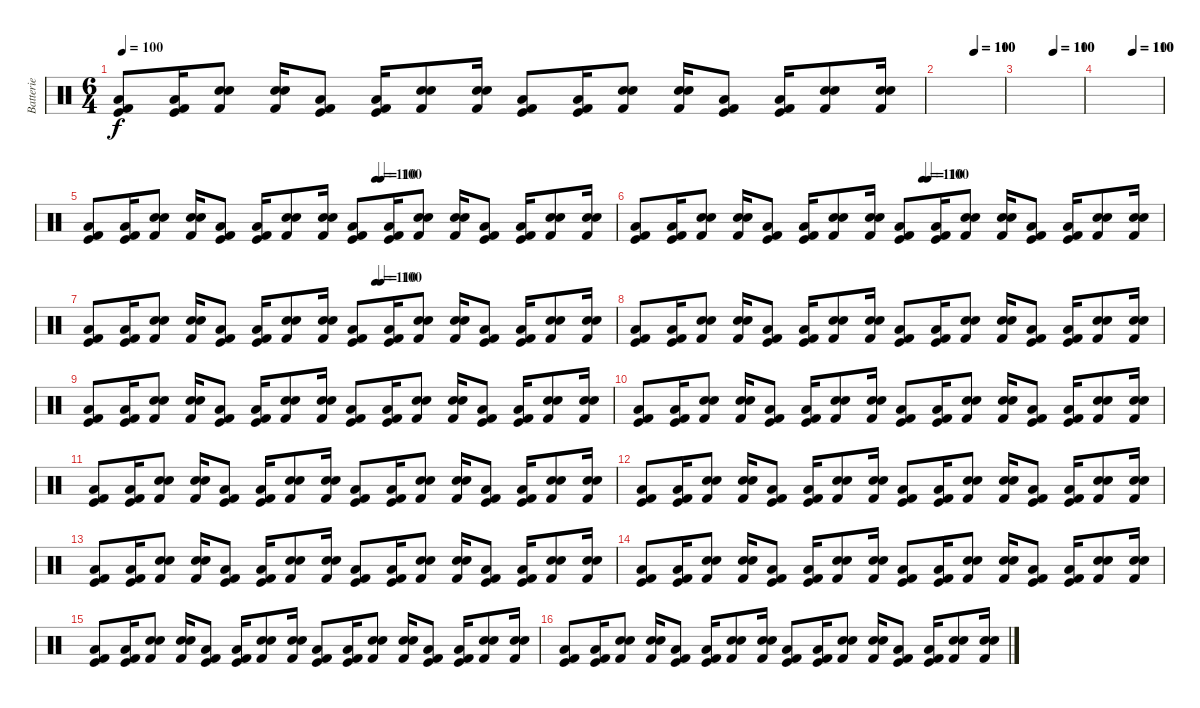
\track ("Batterie" "Batterie") {instrument percussion}
\staff {score}
\articulation defaults
\ts (6 4)
\tempo 100
\clef neutral
\ks c
("Kick (hit)" "Low Tom (hit)" "Kick (hit) 2").8{dy f} ("Kick (hit)" "Low Tom (hit)" "Kick (hit) 2").16 ("Snare (hit) 2" "Kick (hit) 2" "Snare (hit) 2").8 ("Snare (hit) 2" "Kick (hit) 2" "Snare (hit) 2").16 ("Kick (hit)" "Low Tom (hit)" "Kick (hit) 2").8 ("Kick (hit)" "Low Tom (hit)" "Kick (hit) 2").16 ("Snare (hit) 2" "Kick (hit) 2" "Snare (hit) 2").8 ("Snare (hit) 2" "Kick (hit) 2" "Snare (hit) 2").16 ("Kick (hit)" "Low Tom (hit)" "Kick (hit) 2").8 ("Kick (hit)" "Low Tom (hit)" "Kick (hit) 2").16 ("Snare (hit) 2" "Kick (hit) 2" "Snare (hit) 2").8 ("Snare (hit) 2" "Kick (hit) 2" "Snare (hit) 2").16 ("Kick (hit)" "Low Tom (hit)" "Kick (hit) 2").8 ("Kick (hit)" "Low Tom (hit)" "Kick (hit) 2").16 ("Snare (hit) 2" "Kick (hit) 2" "Snare (hit) 2").8 ("Snare (hit) 2" "Kick (hit) 2" "Snare (hit) 2").16 |
\tempo (110 0.5416666666666666)
\tempo (100 0.5520833333333334)
|
\tempo (110 0.5416666666666666)
\tempo (100 0.5520833333333334)
|
\tempo (110 0.5416666666666666)
\tempo (100 0.5520833333333334)
|
\tempo (110 0.5416666666666666)
\tempo (100 0.5520833333333334)
("Kick (hit)" "Low Tom (hit)" "Kick (hit) 2").8 ("Kick (hit)" "Low Tom (hit)" "Kick (hit) 2").16 ("Snare (hit) 2" "Kick (hit) 2" "Snare (hit) 2").8 ("Snare (hit) 2" "Kick (hit) 2" "Snare (hit) 2").16 ("Kick (hit)" "Low Tom (hit)" "Kick (hit) 2").8 ("Kick (hit)" "Low Tom (hit)" "Kick (hit) 2").16 ("Snare (hit) 2" "Kick (hit) 2" "Snare (hit) 2").8 ("Snare (hit) 2" "Kick (hit) 2" "Snare (hit) 2").16 ("Kick (hit)" "Low Tom (hit)" "Kick (hit) 2").8 ("Kick (hit)" "Low Tom (hit)" "Kick (hit) 2").16 ("Snare (hit) 2" "Kick (hit) 2" "Snare (hit) 2").8 ("Snare (hit) 2" "Kick (hit) 2" "Snare (hit) 2").16 ("Kick (hit)" "Low Tom (hit)" "Kick (hit) 2").8 ("Kick (hit)" "Low Tom (hit)" "Kick (hit) 2").16 ("Snare (hit) 2" "Kick (hit) 2" "Snare (hit) 2").8 ("Snare (hit) 2" "Kick (hit) 2" "Snare (hit) 2").16 |
\tempo (110 0.5416666666666666)
\tempo (100 0.5520833333333334)
("Kick (hit)" "Low Tom (hit)" "Kick (hit) 2").8 ("Kick (hit)" "Low Tom (hit)" "Kick (hit) 2").16 ("Snare (hit) 2" "Kick (hit) 2" "Snare (hit) 2").8 ("Snare (hit) 2" "Kick (hit) 2" "Snare (hit) 2").16 ("Kick (hit)" "Low Tom (hit)" "Kick (hit) 2").8 ("Kick (hit)" "Low Tom (hit)" "Kick (hit) 2").16 ("Snare (hit) 2" "Kick (hit) 2" "Snare (hit) 2").8 ("Snare (hit) 2" "Kick (hit) 2" "Snare (hit) 2").16 ("Kick (hit)" "Low Tom (hit)" "Kick (hit) 2").8 ("Kick (hit)" "Low Tom (hit)" "Kick (hit) 2").16 ("Snare (hit) 2" "Kick (hit) 2" "Snare (hit) 2").8 ("Snare (hit) 2" "Kick (hit) 2" "Snare (hit) 2").16 ("Kick (hit)" "Low Tom (hit)" "Kick (hit) 2").8 ("Kick (hit)" "Low Tom (hit)" "Kick (hit) 2").16 ("Snare (hit) 2" "Kick (hit) 2" "Snare (hit) 2").8 ("Snare (hit) 2" "Kick (hit) 2" "Snare (hit) 2").16 |
\tempo (110 0.5416666666666666)
\tempo (100 0.5520833333333334)
("Kick (hit)" "Low Tom (hit)" "Kick (hit) 2").8 ("Kick (hit)" "Low Tom (hit)" "Kick (hit) 2").16 ("Snare (hit) 2" "Kick (hit) 2" "Snare (hit) 2").8 ("Snare (hit) 2" "Kick (hit) 2" "Snare (hit) 2").16 ("Kick (hit)" "Low Tom (hit)" "Kick (hit) 2").8 ("Kick (hit)" "Low Tom (hit)" "Kick (hit) 2").16 ("Snare (hit) 2" "Kick (hit) 2" "Snare (hit) 2").8 ("Snare (hit) 2" "Kick (hit) 2" "Snare (hit) 2").16 ("Kick (hit)" "Low Tom (hit)" "Kick (hit) 2").8 ("Kick (hit)" "Low Tom (hit)" "Kick (hit) 2").16 ("Snare (hit) 2" "Kick (hit) 2" "Snare (hit) 2").8 ("Snare (hit) 2" "Kick (hit) 2" "Snare (hit) 2").16 ("Kick (hit)" "Low Tom (hit)" "Kick (hit) 2").8 ("Kick (hit)" "Low Tom (hit)" "Kick (hit) 2").16 ("Snare (hit) 2" "Kick (hit) 2" "Snare (hit) 2").8 ("Snare (hit) 2" "Kick (hit) 2" "Snare (hit) 2").16 |
("Kick (hit)" "Low Tom (hit)" "Kick (hit) 2").8 ("Kick (hit)" "Low Tom (hit)" "Kick (hit) 2").16 ("Snare (hit) 2" "Kick (hit) 2" "Snare (hit) 2").8 ("Snare (hit) 2" "Kick (hit) 2" "Snare (hit) 2").16 ("Kick (hit)" "Low Tom (hit)" "Kick (hit) 2").8 ("Kick (hit)" "Low Tom (hit)" "Kick (hit) 2").16 ("Snare (hit) 2" "Kick (hit) 2" "Snare (hit) 2").8 ("Snare (hit) 2" "Kick (hit) 2" "Snare (hit) 2").16 ("Kick (hit)" "Low Tom (hit)" "Kick (hit) 2").8 ("Kick (hit)" "Low Tom (hit)" "Kick (hit) 2").16 ("Snare (hit) 2" "Kick (hit) 2" "Snare (hit) 2").8 ("Snare (hit) 2" "Kick (hit) 2" "Snare (hit) 2").16 ("Kick (hit)" "Low Tom (hit)" "Kick (hit) 2").8 ("Kick (hit)" "Low Tom (hit)" "Kick (hit) 2").16 ("Snare (hit) 2" "Kick (hit) 2" "Snare (hit) 2").8 ("Snare (hit) 2" "Kick (hit) 2" "Snare (hit) 2").16 |
("Kick (hit)" "Low Tom (hit)" "Kick (hit) 2").8 ("Kick (hit)" "Low Tom (hit)" "Kick (hit) 2").16 ("Snare (hit) 2" "Kick (hit) 2" "Snare (hit) 2").8 ("Snare (hit) 2" "Kick (hit) 2" "Snare (hit) 2").16 ("Kick (hit)" "Low Tom (hit)" "Kick (hit) 2").8 ("Kick (hit)" "Low Tom (hit)" "Kick (hit) 2").16 ("Snare (hit) 2" "Kick (hit) 2" "Snare (hit) 2").8 ("Snare (hit) 2" "Kick (hit) 2" "Snare (hit) 2").16 ("Kick (hit)" "Low Tom (hit)" "Kick (hit) 2").8 ("Kick (hit)" "Low Tom (hit)" "Kick (hit) 2").16 ("Snare (hit) 2" "Kick (hit) 2" "Snare (hit) 2").8 ("Snare (hit) 2" "Kick (hit) 2" "Snare (hit) 2").16 ("Kick (hit)" "Low Tom (hit)" "Kick (hit) 2").8 ("Kick (hit)" "Low Tom (hit)" "Kick (hit) 2").16 ("Snare (hit) 2" "Kick (hit) 2" "Snare (hit) 2").8 ("Snare (hit) 2" "Kick (hit) 2" "Snare (hit) 2").16 |
("Kick (hit)" "Low Tom (hit)" "Kick (hit) 2").8 ("Kick (hit)" "Low Tom (hit)" "Kick (hit) 2").16 ("Snare (hit) 2" "Kick (hit) 2" "Snare (hit) 2").8 ("Snare (hit) 2" "Kick (hit) 2" "Snare (hit) 2").16 ("Kick (hit)" "Low Tom (hit)" "Kick (hit) 2").8 ("Kick (hit)" "Low Tom (hit)" "Kick (hit) 2").16 ("Snare (hit) 2" "Kick (hit) 2" "Snare (hit) 2").8 ("Snare (hit) 2" "Kick (hit) 2" "Snare (hit) 2").16 ("Kick (hit)" "Low Tom (hit)" "Kick (hit) 2").8 ("Kick (hit)" "Low Tom (hit)" "Kick (hit) 2").16 ("Snare (hit) 2" "Kick (hit) 2" "Snare (hit) 2").8 ("Snare (hit) 2" "Kick (hit) 2" "Snare (hit) 2").16 ("Kick (hit)" "Low Tom (hit)" "Kick (hit) 2").8 ("Kick (hit)" "Low Tom (hit)" "Kick (hit) 2").16 ("Snare (hit) 2" "Kick (hit) 2" "Snare (hit) 2").8 ("Snare (hit) 2" "Kick (hit) 2" "Snare (hit) 2").16 |
("Kick (hit)" "Low Tom (hit)" "Kick (hit) 2").8 ("Kick (hit)" "Low Tom (hit)" "Kick (hit) 2").16 ("Snare (hit) 2" "Kick (hit) 2" "Snare (hit) 2").8 ("Snare (hit) 2" "Kick (hit) 2" "Snare (hit) 2").16 ("Kick (hit)" "Low Tom (hit)" "Kick (hit) 2").8 ("Kick (hit)" "Low Tom (hit)" "Kick (hit) 2").16 ("Snare (hit) 2" "Kick (hit) 2" "Snare (hit) 2").8 ("Snare (hit) 2" "Kick (hit) 2" "Snare (hit) 2").16 ("Kick (hit)" "Low Tom (hit)" "Kick (hit) 2").8 ("Kick (hit)" "Low Tom (hit)" "Kick (hit) 2").16 ("Snare (hit) 2" "Kick (hit) 2" "Snare (hit) 2").8 ("Snare (hit) 2" "Kick (hit) 2" "Snare (hit) 2").16 ("Kick (hit)" "Low Tom (hit)" "Kick (hit) 2").8 ("Kick (hit)" "Low Tom (hit)" "Kick (hit) 2").16 ("Snare (hit) 2" "Kick (hit) 2" "Snare (hit) 2").8 ("Snare (hit) 2" "Kick (hit) 2" "Snare (hit) 2").16 |
("Kick (hit)" "Low Tom (hit)" "Kick (hit) 2").8 ("Kick (hit)" "Low Tom (hit)" "Kick (hit) 2").16 ("Snare (hit) 2" "Kick (hit) 2" "Snare (hit) 2").8 ("Snare (hit) 2" "Kick (hit) 2" "Snare (hit) 2").16 ("Kick (hit)" "Low Tom (hit)" "Kick (hit) 2").8 ("Kick (hit)" "Low Tom (hit)" "Kick (hit) 2").16 ("Snare (hit) 2" "Kick (hit) 2" "Snare (hit) 2").8 ("Snare (hit) 2" "Kick (hit) 2" "Snare (hit) 2").16 ("Kick (hit)" "Low Tom (hit)" "Kick (hit) 2").8 ("Kick (hit)" "Low Tom (hit)" "Kick (hit) 2").16 ("Snare (hit) 2" "Kick (hit) 2" "Snare (hit) 2").8 ("Snare (hit) 2" "Kick (hit) 2" "Snare (hit) 2").16 ("Kick (hit)" "Low Tom (hit)" "Kick (hit) 2").8 ("Kick (hit)" "Low Tom (hit)" "Kick (hit) 2").16 ("Snare (hit) 2" "Kick (hit) 2" "Snare (hit) 2").8 ("Snare (hit) 2" "Kick (hit) 2" "Snare (hit) 2").16 |
("Kick (hit)" "Low Tom (hit)" "Kick (hit) 2").8 ("Kick (hit)" "Low Tom (hit)" "Kick (hit) 2").16 ("Snare (hit) 2" "Kick (hit) 2" "Snare (hit) 2").8 ("Snare (hit) 2" "Kick (hit) 2" "Snare (hit) 2").16 ("Kick (hit)" "Low Tom (hit)" "Kick (hit) 2").8 ("Kick (hit)" "Low Tom (hit)" "Kick (hit) 2").16 ("Snare (hit) 2" "Kick (hit) 2" "Snare (hit) 2").8 ("Snare (hit) 2" "Kick (hit) 2" "Snare (hit) 2").16 ("Kick (hit)" "Low Tom (hit)" "Kick (hit) 2").8 ("Kick (hit)" "Low Tom (hit)" "Kick (hit) 2").16 ("Snare (hit) 2" "Kick (hit) 2" "Snare (hit) 2").8 ("Snare (hit) 2" "Kick (hit) 2" "Snare (hit) 2").16 ("Kick (hit)" "Low Tom (hit)" "Kick (hit) 2").8 ("Kick (hit)" "Low Tom (hit)" "Kick (hit) 2").16 ("Snare (hit) 2" "Kick (hit) 2" "Snare (hit) 2").8 ("Snare (hit) 2" "Kick (hit) 2" "Snare (hit) 2").16 |
("Kick (hit)" "Low Tom (hit)" "Kick (hit) 2").8 ("Kick (hit)" "Low Tom (hit)" "Kick (hit) 2").16 ("Snare (hit) 2" "Kick (hit) 2" "Snare (hit) 2").8 ("Snare (hit) 2" "Kick (hit) 2" "Snare (hit) 2").16 ("Kick (hit)" "Low Tom (hit)" "Kick (hit) 2").8 ("Kick (hit)" "Low Tom (hit)" "Kick (hit) 2").16 ("Snare (hit) 2" "Kick (hit) 2" "Snare (hit) 2").8 ("Snare (hit) 2" "Kick (hit) 2" "Snare (hit) 2").16 ("Kick (hit)" "Low Tom (hit)" "Kick (hit) 2").8 ("Kick (hit)" "Low Tom (hit)" "Kick (hit) 2").16 ("Snare (hit) 2" "Kick (hit) 2" "Snare (hit) 2").8 ("Snare (hit) 2" "Kick (hit) 2" "Snare (hit) 2").16 ("Kick (hit)" "Low Tom (hit)" "Kick (hit) 2").8 ("Kick (hit)" "Low Tom (hit)" "Kick (hit) 2").16 ("Snare (hit) 2" "Kick (hit) 2" "Snare (hit) 2").8 ("Snare (hit) 2" "Kick (hit) 2" "Snare (hit) 2").16 |
("Kick (hit)" "Low Tom (hit)" "Kick (hit) 2").8 ("Kick (hit)" "Low Tom (hit)" "Kick (hit) 2").16 ("Snare (hit) 2" "Kick (hit) 2" "Snare (hit) 2").8 ("Snare (hit) 2" "Kick (hit) 2" "Snare (hit) 2").16 ("Kick (hit)" "Low Tom (hit)" "Kick (hit) 2").8 ("Kick (hit)" "Low Tom (hit)" "Kick (hit) 2").16 ("Snare (hit) 2" "Kick (hit) 2" "Snare (hit) 2").8 ("Snare (hit) 2" "Kick (hit) 2" "Snare (hit) 2").16 ("Kick (hit)" "Low Tom (hit)" "Kick (hit) 2").8 ("Kick (hit)" "Low Tom (hit)" "Kick (hit) 2").16 ("Snare (hit) 2" "Kick (hit) 2" "Snare (hit) 2").8 ("Snare (hit) 2" "Kick (hit) 2" "Snare (hit) 2").16 ("Kick (hit)" "Low Tom (hit)" "Kick (hit) 2").8 ("Kick (hit)" "Low Tom (hit)" "Kick (hit) 2").16 ("Snare (hit) 2" "Kick (hit) 2" "Snare (hit) 2").8 ("Snare (hit) 2" "Kick (hit) 2" "Snare (hit) 2").16 |
("Kick (hit)" "Low Tom (hit)" "Kick (hit) 2").8 ("Kick (hit)" "Low Tom (hit)" "Kick (hit) 2").16 ("Snare (hit) 2" "Kick (hit) 2" "Snare (hit) 2").8 ("Snare (hit) 2" "Kick (hit) 2" "Snare (hit) 2").16 ("Kick (hit)" "Low Tom (hit)" "Kick (hit) 2").8 ("Kick (hit)" "Low Tom (hit)" "Kick (hit) 2").16 ("Snare (hit) 2" "Kick (hit) 2" "Snare (hit) 2").8 ("Snare (hit) 2" "Kick (hit) 2" "Snare (hit) 2").16 ("Kick (hit)" "Low Tom (hit)" "Kick (hit) 2").8 ("Kick (hit)" "Low Tom (hit)" "Kick (hit) 2").16 ("Snare (hit) 2" "Kick (hit) 2" "Snare (hit) 2").8 ("Snare (hit) 2" "Kick (hit) 2" "Snare (hit) 2").16 ("Kick (hit)" "Low Tom (hit)" "Kick (hit) 2").8 ("Kick (hit)" "Low Tom (hit)" "Kick (hit) 2").16 ("Snare (hit) 2" "Kick (hit) 2" "Snare (hit) 2").8 ("Snare (hit) 2" "Kick (hit) 2" "Snare (hit) 2").16
